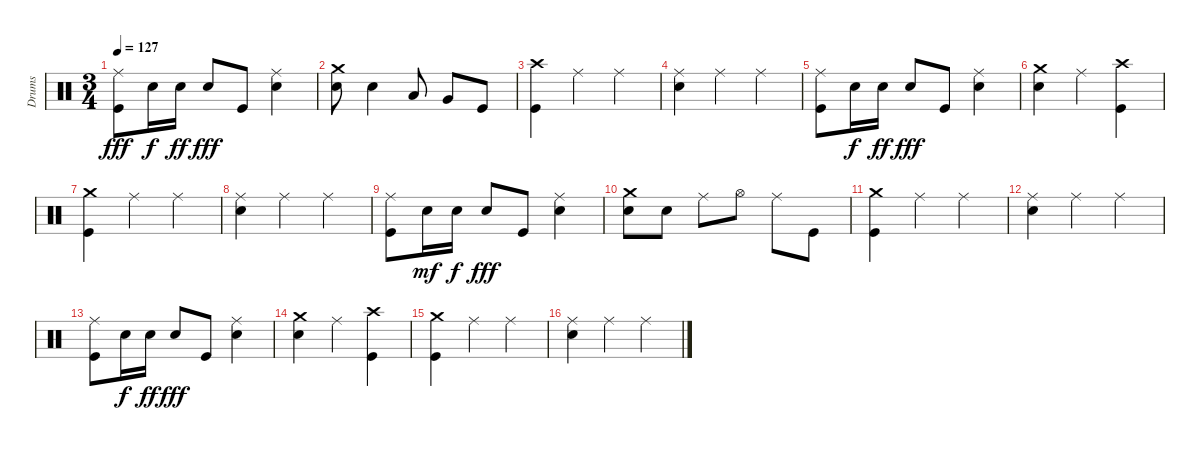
\track ("Drums" "Drums") {instrument percussion}
\staff {score}
\articulation defaults
\ts (3 4)
\tempo 127
\clef neutral
\ks c
("Ride (middle)" "Kick (hit)").8{dy fff} "Snare (hit) 2".16{dy f} "Snare (hit) 2".16{dy ff} "Snare (hit) 2".8{dy fff} "Kick (hit)".8 ("Ride (middle)" "Snare (hit) 2").4 |
("Crash medium (hit)" "Snare (hit) 2").8 "Snare (hit) 2".4 "Low Tom (hit)".8 "Very Low Tom (hit)".8 "Kick (hit)".8 |
("Crash high (hit)" "Kick (hit)").4 "Ride (middle)".4 "Ride (middle)".4 |
("Ride (middle)" "Snare (hit) 2").4 "Ride (middle)".4 "Ride (middle)".4 |
("Ride (middle)" "Kick (hit)").8 "Snare (hit) 2".16{dy f} "Snare (hit) 2".16{dy ff} "Snare (hit) 2".8{dy fff} "Kick (hit)".8 ("Ride (middle)" "Snare (hit) 2").4 |
("Crash medium (hit)" "Snare (hit) 2").4 "Ride (middle)".4 ("Crash high (hit)" "Kick (hit)").4 |
("Crash medium (hit)" "Kick (hit)").4 "Ride (middle)".4 "Ride (middle)".4 |
("Ride (middle)" "Snare (hit) 2").4 "Ride (middle)".4 "Ride (middle)".4 |
("Ride (middle)" "Kick (hit)").8 "Snare (hit) 2".16{dy mf} "Snare (hit) 2".16{dy f} "Snare (hit) 2".8{dy fff} "Kick (hit)".8 ("Ride (middle)" "Snare (hit) 2").4 |
("Crash medium (hit)" "Snare (hit) 2").8 "Snare (hit) 2".8 "Ride (middle)".8 "Hi-Hat (open)".8 "Ride (middle)".8 "Kick (hit)".8 |
("Crash medium (hit)" "Kick (hit)").4 "Ride (middle)".4 "Ride (middle)".4 |
("Ride (middle)" "Snare (hit) 2").4 "Ride (middle)".4 "Ride (middle)".4 |
("Ride (middle)" "Kick (hit)").8 "Snare (hit) 2".16{dy f} "Snare (hit) 2".16{dy ff} "Snare (hit) 2".8{dy fff} "Kick (hit)".8 ("Ride (middle)" "Snare (hit) 2").4 |
("Crash medium (hit)" "Snare (hit) 2").4 "Ride (middle)".4 ("Crash high (hit)" "Kick (hit)").4 |
("Crash medium (hit)" "Kick (hit)").4 "Ride (middle)".4 "Ride (middle)".4 |
("Ride (middle)" "Snare (hit) 2").4 "Ride (middle)".4 "Ride (middle)".4
